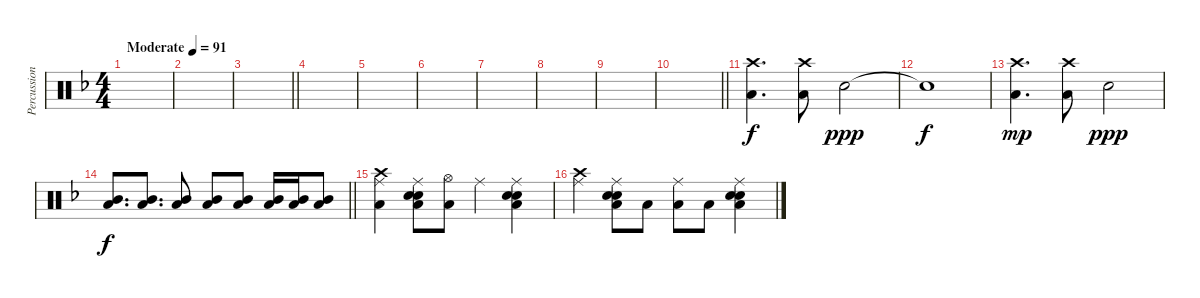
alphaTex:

\track ("Percussion" "Percussion") {instrument percussion}
\staff {score}
\articulation defaults
\ts (4 4)
\tempo (91 "Moderate")
\clef neutral
\ks f
|
|
\barLineRight lightlight
|
|
|
|
|
|
|
\barLineRight lightlight
|
("Crash high (hit)" "Low Floor Tom (hit)").4{d} ("Crash high (hit)" "Low Floor Tom (hit)").8 "Snare (hit)".2{dy ppp} |
"Snare (hit)"{t}.1{dy f} |
("Crash high (hit)" "Low Floor Tom (hit)").4{d dy mp} ("Crash high (hit)" "Low Floor Tom (hit)").8 "Snare (hit)".2{dy ppp} |
\barLineRight lightlight
("Mid Tom (hit)" "Low Floor Tom (hit)").8{d dy f} ("Mid Tom (hit)" "Low Floor Tom (hit)").8{d} ("Mid Tom (hit)" "Low Floor Tom (hit)").8 ("Mid Tom (hit)" "Low Floor Tom (hit)").8 ("Mid Tom (hit)" "Low Floor Tom (hit)").8 ("Mid Tom (hit)" "Low Floor Tom (hit)").16 ("Mid Tom (hit)" "Low Floor Tom (hit)").16 ("Mid Tom (hit)" "Low Floor Tom (hit)").8 |
("Low Floor Tom (hit)" "Crash high (hit)" "Ride (middle)").4 ("Low Floor Tom (hit)" "Snare (hit) 2" "Electric Snare (hit)" "Ride (middle)").8 ("Low Floor Tom (hit)" "Hi-Hat (open)").8 "Ride (middle)".4 ("Electric Snare (hit)" "Snare (hit) 2" "Low Floor Tom (hit)" "Ride (middle)").4 |
("Crash high (hit)" "Ride (middle)").4 ("Low Floor Tom (hit)" "Snare (hit) 2" "Electric Snare (hit)" "Ride (middle)").8 "Low Floor Tom (hit)".8 ("Low Floor Tom (hit)" "Ride (middle)").8 "Low Floor Tom (hit)".8 ("Electric Snare (hit)" "Low Floor Tom (hit)" "Ride (middle)" "Snare (hit) 2").4
